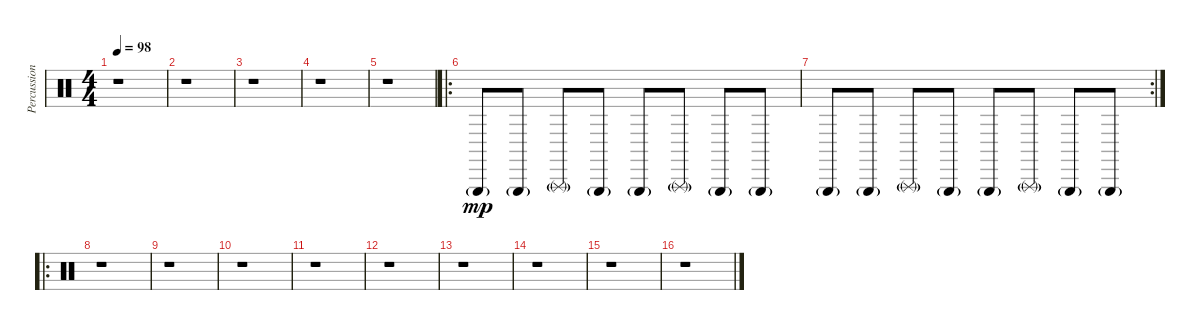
\track ("Percussion" "Percussion") {instrument percussion}
\staff {score}
\articulation defaults
\ts (4 4)
\tempo 98
\clef neutral
\ks c
r.1{dy mp} |
r.1 |
r.1 |
r.1 |
r.1 |
\ro "Triangle (hit)"{g}.8 "Triangle (hit)"{g}.8 "Triangle (rnute)"{g}.8 "Triangle (hit)"{g}.8 "Triangle (hit)"{g}.8 "Triangle (rnute)"{g}.8 "Triangle (hit)"{g}.8 "Triangle (hit)"{g}.8
|
\rc 2 "Triangle (hit)"{g}.8 "Triangle (hit)"{g}.8 "Triangle (rnute)"{g}.8 "Triangle (hit)"{g}.8 "Triangle (hit)"{g}.8 "Triangle (rnute)"{g}.8 "Triangle (hit)"{g}.8 "Triangle (hit)"{g}.8
|
\ro
r.1 |
r.1 |
r.1 |
r.1 |
r.1 |
r.1 |
r.1 |
r.1 |
r.1
